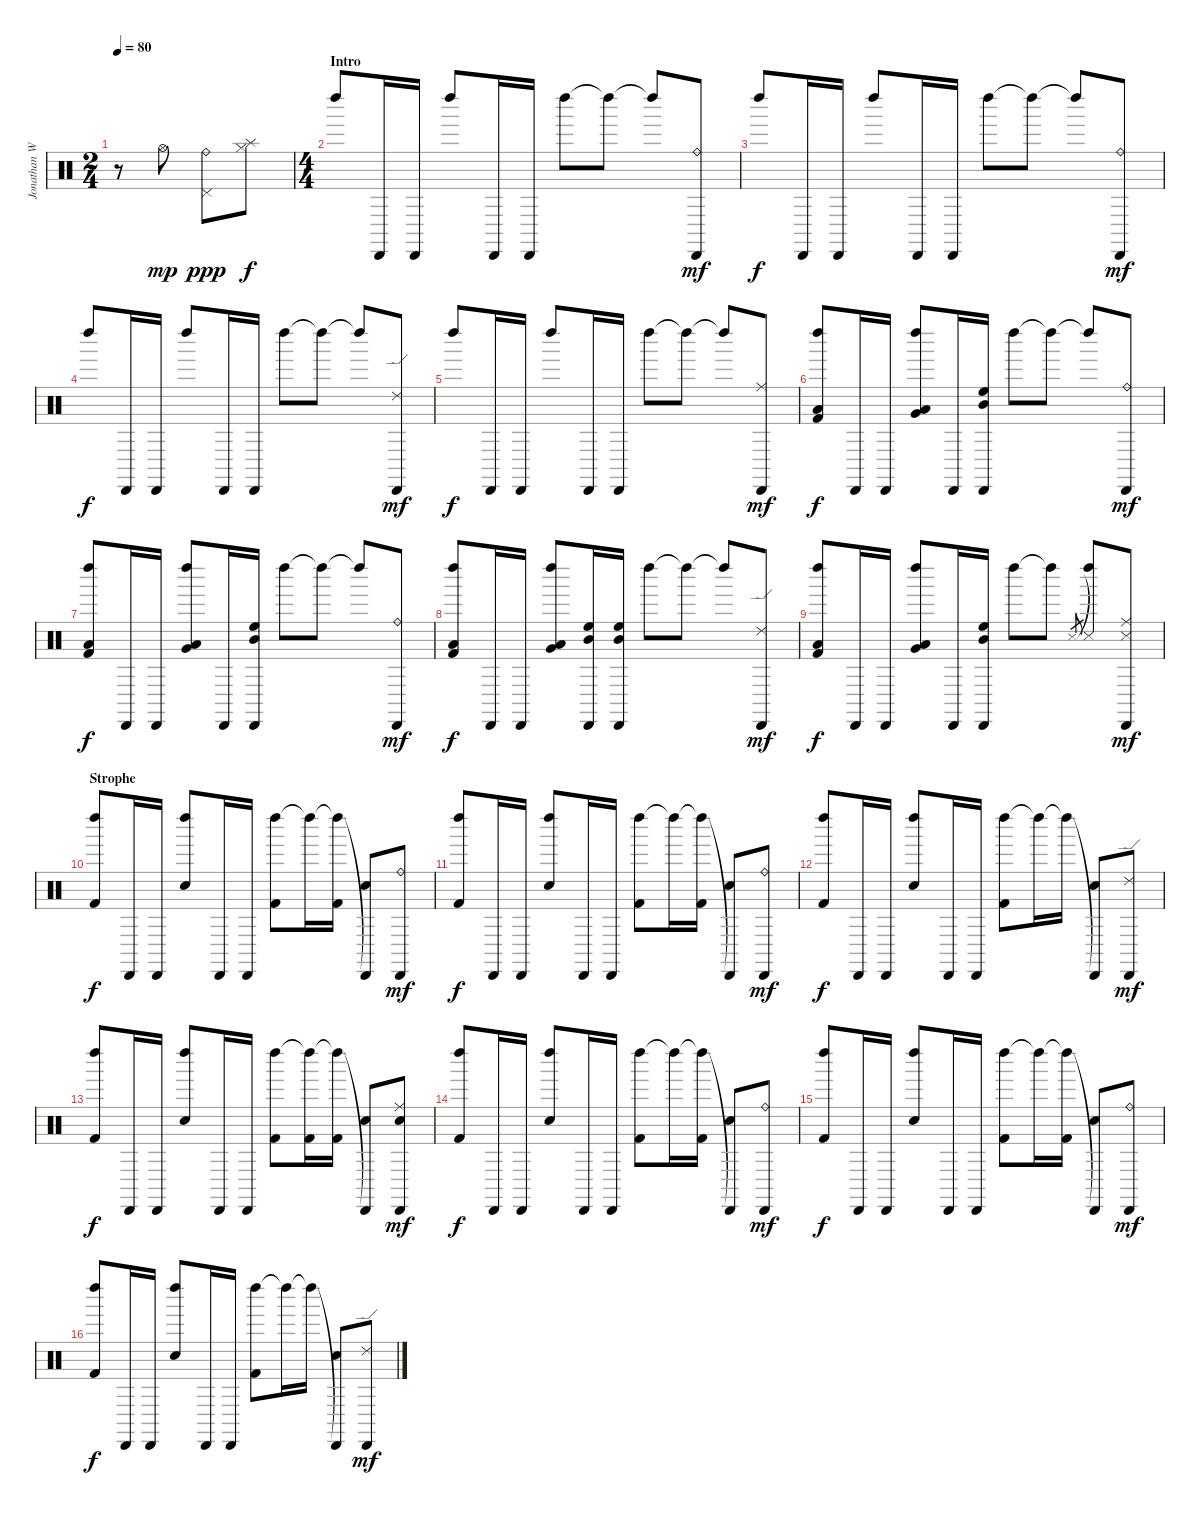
\track ("Jonathan Wenzel" "Jonathan W") {instrument percussion}
\staff {score}
\articulation defaults
\ts (2 4)
\tempo 80
\clef neutral
\ks c
r.8{dy mp} "Hi-Hat (open)".8 ("Ride (bell)" "Pedal Hi-Hat (hit)").8{dy ppp} ("Hi-Hat (closed)" "Splash (hit)").8{dy f} |
\ts (4 4)
\section ("" "Intro")
"Left Maraca (hit)".8 "Cabasa (hit)".16 "Cabasa (hit)".16 "Left Maraca (hit)".8 "Cabasa (hit)".16 "Cabasa (hit)".16 "Left Maraca (hit)".8 "Left Maraca (hit)"{t}.8 "Left Maraca (hit)"{t}.8 ("Cabasa (hit)" "Ride (bell)").8{dy mf} |
"Left Maraca (hit)".8{dy f} "Cabasa (hit)".16 "Cabasa (hit)".16 "Left Maraca (hit)".8 "Cabasa (hit)".16 "Cabasa (hit)".16 "Left Maraca (hit)".8 "Left Maraca (hit)"{t}.8 "Left Maraca (hit)"{t}.8 ("Cabasa (hit)" "Ride (bell)").8{dy mf} |
"Left Maraca (hit)".8{dy f} "Cabasa (hit)".16 "Cabasa (hit)".16 "Left Maraca (hit)".8 "Cabasa (hit)".16 "Cabasa (hit)".16 "Left Maraca (hit)".8 "Left Maraca (hit)"{t}.8 "Left Maraca (hit)"{t}.8 ("Cabasa (hit)" "Ride (edge) 2").8{dy mf} |
"Left Maraca (hit)".8{dy f} "Cabasa (hit)".16 "Cabasa (hit)".16 "Left Maraca (hit)".8 "Cabasa (hit)".16 "Cabasa (hit)".16 "Left Maraca (hit)".8 "Left Maraca (hit)"{t}.8 "Left Maraca (hit)"{t}.8 ("Cabasa (hit)" "Ride (middle)").8{dy mf} |
("Left Maraca (hit)" "Low Floor Tom (hit)" "Kick (hit) 2").8{dy f} "Cabasa (hit)".16 "Cabasa (hit)".16 ("Left Maraca (hit)" "Low Tom (hit)" "Very Low Tom (hit)").8 "Cabasa (hit)".16 ("Cabasa (hit)" "Mid Tom (hit)" "High Floor Tom (hit)").16 "Left Maraca (hit)".8 "Left Maraca (hit)"{t}.8 "Left Maraca (hit)"{t}.8 ("Cabasa (hit)" "Ride (bell)").8{dy mf} |
("Left Maraca (hit)" "Low Floor Tom (hit)" "Kick (hit) 2").8{dy f} "Cabasa (hit)".16 "Cabasa (hit)".16 ("Left Maraca (hit)" "Low Tom (hit)" "Very Low Tom (hit)").8 "Cabasa (hit)".16 ("Cabasa (hit)" "Mid Tom (hit)" "High Floor Tom (hit)").16 "Left Maraca (hit)".8 "Left Maraca (hit)"{t}.8 "Left Maraca (hit)"{t}.8 ("Cabasa (hit)" "Ride (bell)").8{dy mf} |
("Left Maraca (hit)" "Low Floor Tom (hit)" "Kick (hit) 2").8{dy f} "Cabasa (hit)".16 "Cabasa (hit)".16 ("Left Maraca (hit)" "Low Tom (hit)" "Very Low Tom (hit)").8 ("Cabasa (hit)" "Mid Tom (hit)" "High Floor Tom (hit)").16 ("Cabasa (hit)" "Mid Tom (hit)" "High Floor Tom (hit)").16 "Left Maraca (hit)".8 "Left Maraca (hit)"{t}.8 "Left Maraca (hit)"{t}.8 ("Cabasa (hit)" "Ride (edge) 2").8{dy mf} |
("Left Maraca (hit)" "Low Floor Tom (hit)" "Kick (hit) 2").8{dy f} "Cabasa (hit)".16 "Cabasa (hit)".16 ("Left Maraca (hit)" "Low Tom (hit)" "Very Low Tom (hit)").8 "Cabasa (hit)".16 ("Cabasa (hit)" "Mid Tom (hit)" "High Floor Tom (hit)").16 "Left Maraca (hit)".8 "Left Maraca (hit)"{t}.8 "Snare (side stick) 3".8{gr} ("Left Maraca (hit)"{t} "Snare (side stick) 3").8 ("Cabasa (hit)" "Ride (middle)" "Snare (side stick) 3").8{dy mf} |
\section ("" "Strophe")
("Left Maraca (hit)" "Kick (hit) 2").8{dy f} "Cabasa (hit)".16 "Cabasa (hit)".16 ("Left Maraca (hit)" "Snare (hit) 2").8 "Cabasa (hit)".16 "Cabasa (hit)".16 ("Left Maraca (hit)" "Kick (hit) 2").8 "Left Maraca (hit)"{t}.16 ("Left Maraca (hit)"{t} "Kick (hit) 2").16 ("Cabasa (hit)"{t} "Snare (hit) 2").8 ("Cabasa (hit)" "Ride (bell)").8{dy mf} |
("Left Maraca (hit)" "Kick (hit) 2").8{dy f} "Cabasa (hit)".16 "Cabasa (hit)".16 ("Left Maraca (hit)" "Snare (hit) 2").8 "Cabasa (hit)".16 "Cabasa (hit)".16 ("Left Maraca (hit)" "Kick (hit) 2").8 "Left Maraca (hit)"{t}.16 ("Left Maraca (hit)"{t} "Kick (hit) 2").16 ("Cabasa (hit)"{t} "Snare (hit) 2").8 ("Cabasa (hit)" "Ride (bell)").8{dy mf} |
("Left Maraca (hit)" "Kick (hit) 2").8{dy f} "Cabasa (hit)".16 "Cabasa (hit)".16 ("Left Maraca (hit)" "Snare (hit) 2").8 "Cabasa (hit)".16 "Cabasa (hit)".16 ("Left Maraca (hit)" "Kick (hit) 2").8 "Left Maraca (hit)"{t}.16 "Left Maraca (hit)"{t}.16 ("Cabasa (hit)"{t} "Snare (hit) 2").8 ("Cabasa (hit)" "Ride (edge) 2").8{dy mf} |
("Left Maraca (hit)" "Kick (hit) 2").8{dy f} "Cabasa (hit)".16 "Cabasa (hit)".16 ("Left Maraca (hit)" "Snare (hit) 2").8 "Cabasa (hit)".16 "Cabasa (hit)".16 ("Left Maraca (hit)" "Kick (hit) 2").8 ("Left Maraca (hit)"{t} "Kick (hit) 2").16 ("Left Maraca (hit)"{t} "Kick (hit) 2").16 ("Cabasa (hit)"{t} "Snare (hit) 2").8 ("Cabasa (hit)" "Ride (middle)" "Snare (hit) 2").8{dy mf} |
("Left Maraca (hit)" "Kick (hit) 2").8{dy f} "Cabasa (hit)".16 "Cabasa (hit)".16 ("Left Maraca (hit)" "Snare (hit) 2").8 "Cabasa (hit)".16 "Cabasa (hit)".16 ("Left Maraca (hit)" "Kick (hit) 2").8 "Left Maraca (hit)"{t}.16 ("Left Maraca (hit)"{t} "Kick (hit) 2").16 ("Cabasa (hit)"{t} "Snare (hit) 2").8 ("Cabasa (hit)" "Ride (bell)").8{dy mf} |
("Left Maraca (hit)" "Kick (hit) 2").8{dy f} "Cabasa (hit)".16 "Cabasa (hit)".16 ("Left Maraca (hit)" "Snare (hit) 2").8 "Cabasa (hit)".16 "Cabasa (hit)".16 ("Left Maraca (hit)" "Kick (hit) 2").8 "Left Maraca (hit)"{t}.16 ("Left Maraca (hit)"{t} "Kick (hit) 2").16 ("Cabasa (hit)"{t} "Snare (hit) 2").8 ("Cabasa (hit)" "Ride (bell)").8{dy mf} |
("Left Maraca (hit)" "Kick (hit) 2").8{dy f} "Cabasa (hit)".16 "Cabasa (hit)".16 ("Left Maraca (hit)" "Snare (hit) 2").8 "Cabasa (hit)".16 "Cabasa (hit)".16 ("Left Maraca (hit)" "Kick (hit) 2").8 "Left Maraca (hit)"{t}.16 "Left Maraca (hit)"{t}.16 ("Cabasa (hit)"{t} "Snare (hit) 2").8 ("Cabasa (hit)" "Ride (edge) 2").8{dy mf}
